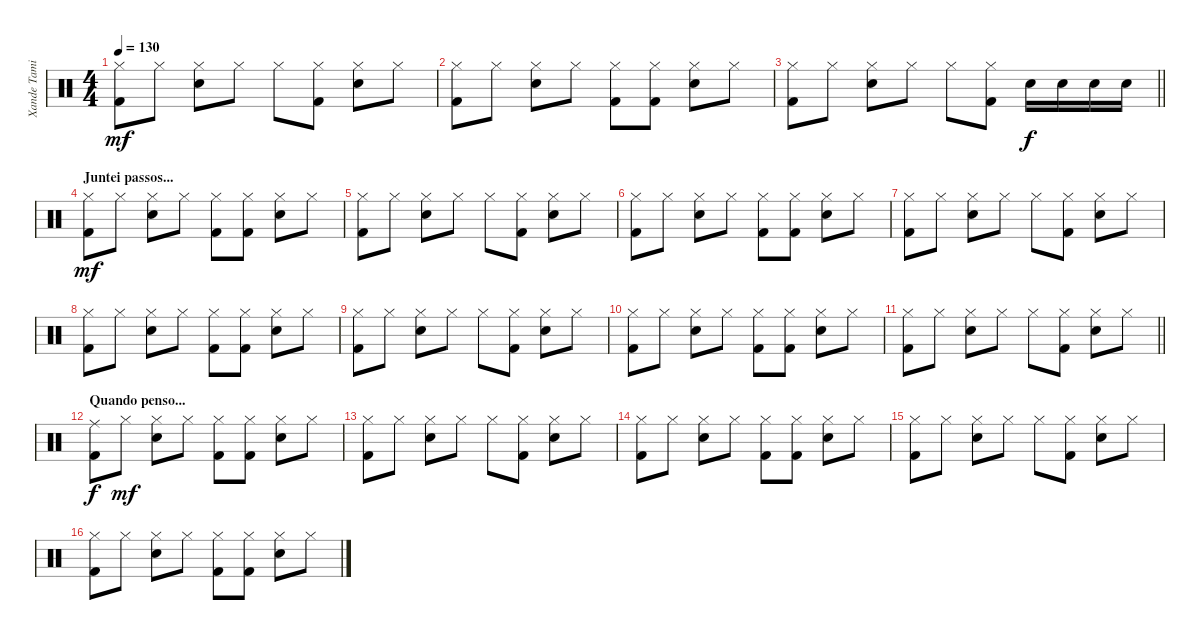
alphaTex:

\track ("Xande Tamietti" "Xande Tami") {instrument percussion}
\staff {score}
\articulation defaults
\ts (4 4)
\tempo 130
\clef neutral
\ks c
("Hi-Hat (closed)" "Kick (hit) 2").8{dy mf} "Hi-Hat (closed)".8 ("Hi-Hat (closed)" "Electric Snare (hit)").8 "Hi-Hat (closed)".8 "Hi-Hat (closed)".8 ("Hi-Hat (closed)" "Kick (hit) 2").8 ("Hi-Hat (closed)" "Electric Snare (hit)").8 "Hi-Hat (closed)".8 |
("Hi-Hat (closed)" "Kick (hit) 2").8 "Hi-Hat (closed)".8 ("Hi-Hat (closed)" "Electric Snare (hit)").8 "Hi-Hat (closed)".8 ("Hi-Hat (closed)" "Kick (hit) 2").8 ("Hi-Hat (closed)" "Kick (hit) 2").8 ("Hi-Hat (closed)" "Electric Snare (hit)").8 "Hi-Hat (closed)".8 |
\barLineRight lightlight
("Hi-Hat (closed)" "Kick (hit) 2").8 "Hi-Hat (closed)".8 ("Hi-Hat (closed)" "Electric Snare (hit)").8 "Hi-Hat (closed)".8 "Hi-Hat (closed)".8 ("Hi-Hat (closed)" "Kick (hit) 2").8 "Electric Snare (hit)".16{dy f} "Electric Snare (hit)".16 "Electric Snare (hit)".16 "Electric Snare (hit)".16 |
\section ("" "Juntei passos...")
("Hi-Hat (closed)" "Kick (hit) 2").8{dy mf} "Hi-Hat (closed)".8 ("Hi-Hat (closed)" "Electric Snare (hit)").8 "Hi-Hat (closed)".8 ("Hi-Hat (closed)" "Kick (hit) 2").8 ("Hi-Hat (closed)" "Kick (hit) 2").8 ("Hi-Hat (closed)" "Electric Snare (hit)").8 "Hi-Hat (closed)".8 |
("Hi-Hat (closed)" "Kick (hit) 2").8 "Hi-Hat (closed)".8 ("Hi-Hat (closed)" "Electric Snare (hit)").8 "Hi-Hat (closed)".8 "Hi-Hat (closed)".8 ("Hi-Hat (closed)" "Kick (hit) 2").8 ("Hi-Hat (closed)" "Electric Snare (hit)").8 "Hi-Hat (closed)".8 |
("Hi-Hat (closed)" "Kick (hit) 2").8 "Hi-Hat (closed)".8 ("Hi-Hat (closed)" "Electric Snare (hit)").8 "Hi-Hat (closed)".8 ("Hi-Hat (closed)" "Kick (hit) 2").8 ("Hi-Hat (closed)" "Kick (hit) 2").8 ("Hi-Hat (closed)" "Electric Snare (hit)").8 "Hi-Hat (closed)".8 |
("Hi-Hat (closed)" "Kick (hit) 2").8 "Hi-Hat (closed)".8 ("Hi-Hat (closed)" "Electric Snare (hit)").8 "Hi-Hat (closed)".8 "Hi-Hat (closed)".8 ("Hi-Hat (closed)" "Kick (hit) 2").8 ("Hi-Hat (closed)" "Electric Snare (hit)").8 "Hi-Hat (closed)".8 |
("Hi-Hat (closed)" "Kick (hit) 2").8 "Hi-Hat (closed)".8 ("Hi-Hat (closed)" "Electric Snare (hit)").8 "Hi-Hat (closed)".8 ("Hi-Hat (closed)" "Kick (hit) 2").8 ("Hi-Hat (closed)" "Kick (hit) 2").8 ("Hi-Hat (closed)" "Electric Snare (hit)").8 "Hi-Hat (closed)".8 |
("Hi-Hat (closed)" "Kick (hit) 2").8 "Hi-Hat (closed)".8 ("Hi-Hat (closed)" "Electric Snare (hit)").8 "Hi-Hat (closed)".8 "Hi-Hat (closed)".8 ("Hi-Hat (closed)" "Kick (hit) 2").8 ("Hi-Hat (closed)" "Electric Snare (hit)").8 "Hi-Hat (closed)".8 |
("Hi-Hat (closed)" "Kick (hit) 2").8 "Hi-Hat (closed)".8 ("Hi-Hat (closed)" "Electric Snare (hit)").8 "Hi-Hat (closed)".8 ("Hi-Hat (closed)" "Kick (hit) 2").8 ("Hi-Hat (closed)" "Kick (hit) 2").8 ("Hi-Hat (closed)" "Electric Snare (hit)").8 "Hi-Hat (closed)".8 |
\barLineRight lightlight
("Hi-Hat (closed)" "Kick (hit) 2").8 "Hi-Hat (closed)".8 ("Hi-Hat (closed)" "Electric Snare (hit)").8 "Hi-Hat (closed)".8 "Hi-Hat (closed)".8 ("Hi-Hat (closed)" "Kick (hit) 2").8 ("Hi-Hat (closed)" "Electric Snare (hit)").8 "Hi-Hat (closed)".8 |
\section ("" "Quando penso...")
("Ride (middle)" "Kick (hit) 2").8{dy f} "Hi-Hat (closed)".8{dy mf} ("Hi-Hat (closed)" "Electric Snare (hit)").8 "Hi-Hat (closed)".8 ("Hi-Hat (closed)" "Kick (hit) 2").8 ("Hi-Hat (closed)" "Kick (hit) 2").8 ("Hi-Hat (closed)" "Electric Snare (hit)").8 "Hi-Hat (closed)".8 |
("Hi-Hat (closed)" "Kick (hit) 2").8 "Hi-Hat (closed)".8 ("Hi-Hat (closed)" "Electric Snare (hit)").8 "Hi-Hat (closed)".8 "Hi-Hat (closed)".8 ("Hi-Hat (closed)" "Kick (hit) 2").8 ("Hi-Hat (closed)" "Electric Snare (hit)").8 "Hi-Hat (closed)".8 |
("Hi-Hat (closed)" "Kick (hit) 2").8 "Hi-Hat (closed)".8 ("Hi-Hat (closed)" "Electric Snare (hit)").8 "Hi-Hat (closed)".8 ("Hi-Hat (closed)" "Kick (hit) 2").8 ("Hi-Hat (closed)" "Kick (hit) 2").8 ("Hi-Hat (closed)" "Electric Snare (hit)").8 "Hi-Hat (closed)".8 |
("Hi-Hat (closed)" "Kick (hit) 2").8 "Hi-Hat (closed)".8 ("Hi-Hat (closed)" "Electric Snare (hit)").8 "Hi-Hat (closed)".8 "Hi-Hat (closed)".8 ("Hi-Hat (closed)" "Kick (hit) 2").8 ("Hi-Hat (closed)" "Electric Snare (hit)").8 "Hi-Hat (closed)".8 |
("Hi-Hat (closed)" "Kick (hit) 2").8 "Hi-Hat (closed)".8 ("Hi-Hat (closed)" "Electric Snare (hit)").8 "Hi-Hat (closed)".8 ("Hi-Hat (closed)" "Kick (hit) 2").8 ("Hi-Hat (closed)" "Kick (hit) 2").8 ("Hi-Hat (closed)" "Electric Snare (hit)").8 "Hi-Hat (closed)".8
